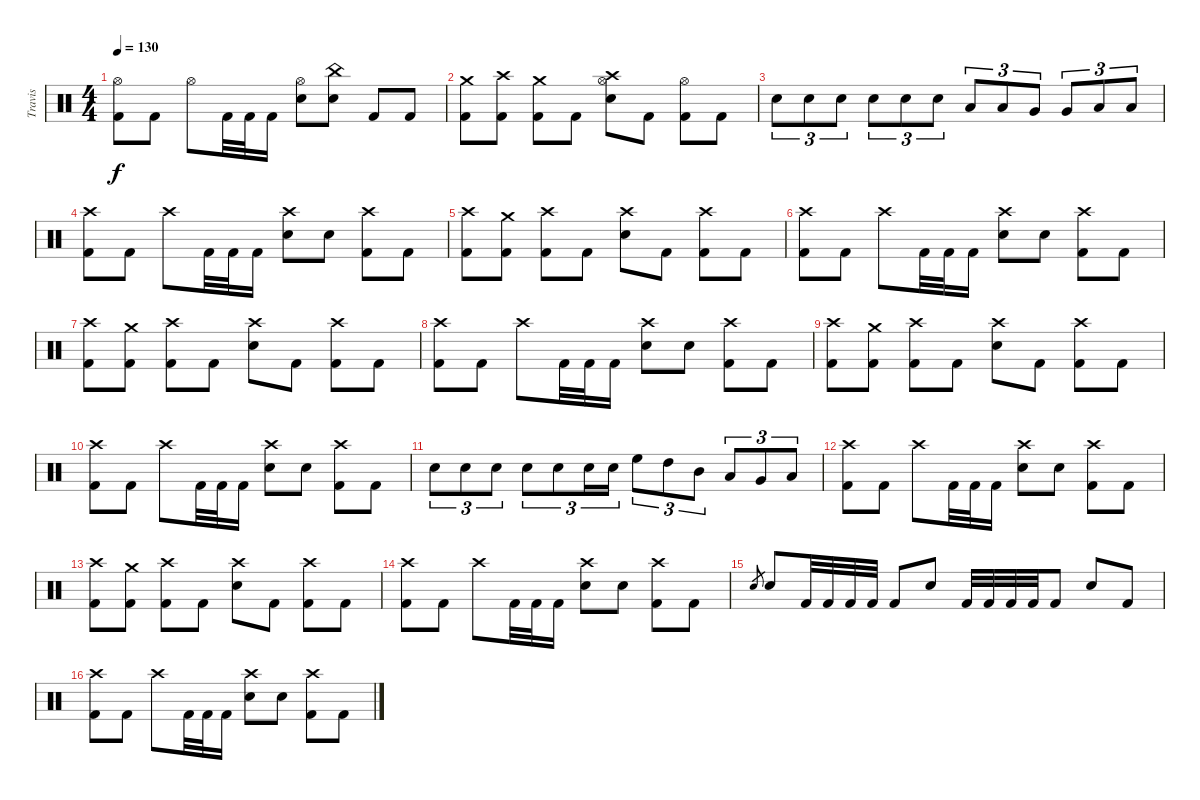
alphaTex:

\track ("Travis" "Travis") {instrument percussion}
\staff {score}
\articulation defaults
\ts (4 4)
\tempo 130
\clef neutral
\ks c
("Hi-Hat (open)" "Kick (hit) 2").8{dy f} "Kick (hit) 2".8 "Hi-Hat (open)".8 "Kick (hit) 2".32 "Kick (hit) 2".32 "Kick (hit) 2".16 ("Hi-Hat (open)" "Snare (hit) 2").8 ("China (hit)" "Snare (hit) 2").8 "Kick (hit) 2".8 "Kick (hit) 2".8 |
("Crash medium (hit)" "Kick (hit) 2").8 ("Crash high (hit)" "Kick (hit) 2").8 ("Crash medium (hit)" "Kick (hit) 2").8 "Kick (hit) 2".8 ("Crash high (hit)" "Hi-Hat (open)" "Snare (hit) 2").8 "Kick (hit) 2".8 ("Hi-Hat (open)" "Kick (hit) 2").8 "Kick (hit) 2".8 |
"Snare (hit) 2".8{tu (3 2)} "Snare (hit) 2".8{tu (3 2)} "Snare (hit) 2".8{tu (3 2)} "Snare (hit) 2".8{tu (3 2)} "Snare (hit) 2".8{tu (3 2)} "Snare (hit) 2".8{tu (3 2)} "Low Tom (hit)".8{tu (3 2)} "Low Tom (hit)".8{tu (3 2)} "Very Low Tom (hit)".8{tu (3 2)} "Very Low Tom (hit)".8{tu (3 2)} "Low Floor Tom (hit)".8{tu (3 2)} "Low Floor Tom (hit)".8{tu (3 2)} |
("Crash high (hit)" "Kick (hit) 2").8 "Kick (hit) 2".8 "Crash high (hit)".8 "Kick (hit) 2".32 "Kick (hit) 2".32 "Kick (hit) 2".16 ("Crash high (hit)" "Snare (hit) 2").8 "Snare (hit) 2".8 ("Crash high (hit)" "Kick (hit) 2").8 "Kick (hit) 2".8 |
("Crash high (hit)" "Kick (hit) 2").8 ("Crash medium (hit)" "Kick (hit) 2").8 ("Crash high (hit)" "Kick (hit) 2").8 "Kick (hit) 2".8 ("Crash high (hit)" "Snare (hit) 2").8 "Kick (hit) 2".8 ("Crash high (hit)" "Kick (hit) 2").8 "Kick (hit) 2".8 |
("Crash high (hit)" "Kick (hit) 2").8 "Kick (hit) 2".8 "Crash high (hit)".8 "Kick (hit) 2".32 "Kick (hit) 2".32 "Kick (hit) 2".16 ("Crash high (hit)" "Snare (hit) 2").8 "Snare (hit) 2".8 ("Crash high (hit)" "Kick (hit) 2").8 "Kick (hit) 2".8 |
("Crash high (hit)" "Kick (hit) 2").8 ("Crash medium (hit)" "Kick (hit) 2").8 ("Crash high (hit)" "Kick (hit) 2").8 "Kick (hit) 2".8 ("Crash high (hit)" "Snare (hit) 2").8 "Kick (hit) 2".8 ("Crash high (hit)" "Kick (hit) 2").8 "Kick (hit) 2".8 |
("Crash high (hit)" "Kick (hit) 2").8 "Kick (hit) 2".8 "Crash high (hit)".8 "Kick (hit) 2".32 "Kick (hit) 2".32 "Kick (hit) 2".16 ("Crash high (hit)" "Snare (hit) 2").8 "Snare (hit) 2".8 ("Crash high (hit)" "Kick (hit) 2").8 "Kick (hit) 2".8 |
("Crash high (hit)" "Kick (hit) 2").8 ("Crash medium (hit)" "Kick (hit) 2").8 ("Crash high (hit)" "Kick (hit) 2").8 "Kick (hit) 2".8 ("Crash high (hit)" "Snare (hit) 2").8 "Kick (hit) 2".8 ("Crash high (hit)" "Kick (hit) 2").8 "Kick (hit) 2".8 |
("Crash high (hit)" "Kick (hit) 2").8 "Kick (hit) 2".8 "Crash high (hit)".8 "Kick (hit) 2".32 "Kick (hit) 2".32 "Kick (hit) 2".16 ("Crash high (hit)" "Snare (hit) 2").8 "Snare (hit) 2".8 ("Crash high (hit)" "Kick (hit) 2").8 "Kick (hit) 2".8 |
"Snare (hit) 2".8{tu (3 2)} "Snare (hit) 2".8{tu (3 2)} "Snare (hit) 2".8{tu (3 2)} "Snare (hit) 2".8{tu (3 2)} "Snare (hit) 2".8{tu (3 2)} "Snare (hit) 2".16{tu (3 2)} "Snare (hit) 2".16{tu (3 2)} "High Floor Tom (hit)".8{tu (3 2)} "High Tom (hit)".8{tu (3 2)} "Mid Tom (hit)".8{tu (3 2)} "Low Tom (hit)".8{tu (3 2)} "Very Low Tom (hit)".8{tu (3 2)} "Low Floor Tom (hit)".8{tu (3 2)} |
("Crash high (hit)" "Kick (hit) 2").8 "Kick (hit) 2".8 "Crash high (hit)".8 "Kick (hit) 2".32 "Kick (hit) 2".32 "Kick (hit) 2".16 ("Crash high (hit)" "Snare (hit) 2").8 "Snare (hit) 2".8 ("Crash high (hit)" "Kick (hit) 2").8 "Kick (hit) 2".8 |
("Crash high (hit)" "Kick (hit) 2").8 ("Crash medium (hit)" "Kick (hit) 2").8 ("Crash high (hit)" "Kick (hit) 2").8 "Kick (hit) 2".8 ("Crash high (hit)" "Snare (hit) 2").8 "Kick (hit) 2".8 ("Crash high (hit)" "Kick (hit) 2").8 "Kick (hit) 2".8 |
("Crash high (hit)" "Kick (hit) 2").8 "Kick (hit) 2".8 "Crash high (hit)".8 "Kick (hit) 2".32 "Kick (hit) 2".32 "Kick (hit) 2".16 ("Crash high (hit)" "Snare (hit) 2").8 "Snare (hit) 2".8 ("Crash high (hit)" "Kick (hit) 2").8 "Kick (hit) 2".8 |
"Snare (hit) 2".8{gr} "Snare (hit) 2".8 "Kick (hit) 2".32 "Kick (hit) 2".32 "Kick (hit) 2".32 "Kick (hit) 2".32 "Kick (hit) 2".8 "Snare (hit) 2".8 "Kick (hit) 2".32 "Kick (hit) 2".32 "Kick (hit) 2".32 "Kick (hit) 2".32 "Kick (hit) 2".8 "Snare (hit) 2".8 "Kick (hit) 2".8 |
("Crash high (hit)" "Kick (hit) 2").8 "Kick (hit) 2".8 "Crash high (hit)".8 "Kick (hit) 2".32 "Kick (hit) 2".32 "Kick (hit) 2".16 ("Crash high (hit)" "Snare (hit) 2").8 "Snare (hit) 2".8 ("Crash high (hit)" "Kick (hit) 2").8 "Kick (hit) 2".8
